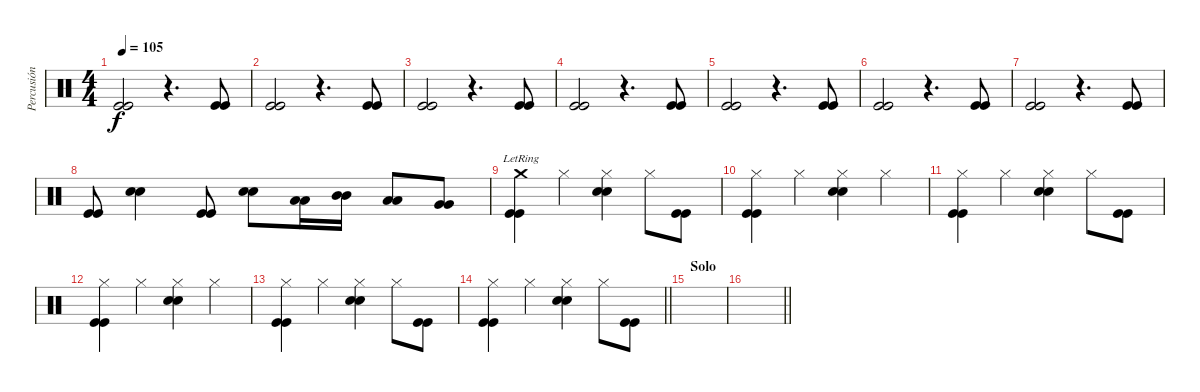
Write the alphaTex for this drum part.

\track ("Percusión" "Percusión") {instrument percussion}
\staff {score}
\articulation defaults
\ts (4 4)
\tempo 105
\clef neutral
\ks c
("Kick (hit)" "Kick (hit)").2{dy f} r.4{d} ("Kick (hit)" "Kick (hit)").8 |
("Kick (hit)" "Kick (hit)").2 r.4{d} ("Kick (hit)" "Kick (hit)").8 |
("Kick (hit)" "Kick (hit)").2 r.4{d} ("Kick (hit)" "Kick (hit)").8 |
("Kick (hit)" "Kick (hit)").2 r.4{d} ("Kick (hit)" "Kick (hit)").8 |
("Kick (hit)" "Kick (hit)").2 r.4{d} ("Kick (hit)" "Kick (hit)").8 |
("Kick (hit)" "Kick (hit)").2 r.4{d} ("Kick (hit)" "Kick (hit)").8 |
("Kick (hit)" "Kick (hit)").2 r.4{d} ("Kick (hit)" "Kick (hit)").8 |
("Kick (hit)" "Kick (hit)").8 ("Electric Snare (hit)" "Electric Snare (hit)").4 ("Kick (hit)" "Kick (hit)").8 ("Electric Snare (hit)" "Electric Snare (hit)").8 ("Low Tom (hit)" "Low Tom (hit)").16 ("Mid Tom (hit)" "Mid Tom (hit)").16 ("Low Tom (hit)" "Low Tom (hit)").8 ("Very Low Tom (hit)" "Very Low Tom (hit)").8 |
("Crash medium (hit)"{lr} "Kick (hit)" "Kick (hit)").4 "Hi-Hat (closed)".4 ("Hi-Hat (closed)" "Electric Snare (hit)" "Electric Snare (hit)").4 "Hi-Hat (closed)".8 ("Kick (hit)" "Kick (hit)").8 |
("Hi-Hat (closed)" "Kick (hit)" "Kick (hit)").4 "Hi-Hat (closed)".4 ("Hi-Hat (closed)" "Electric Snare (hit)" "Electric Snare (hit)").4 "Hi-Hat (closed)".4 |
("Hi-Hat (closed)" "Kick (hit)" "Kick (hit)").4 "Hi-Hat (closed)".4 ("Hi-Hat (closed)" "Electric Snare (hit)" "Electric Snare (hit)").4 "Hi-Hat (closed)".8 ("Kick (hit)" "Kick (hit)").8 |
("Hi-Hat (closed)" "Kick (hit)" "Kick (hit)").4 "Hi-Hat (closed)".4 ("Hi-Hat (closed)" "Electric Snare (hit)" "Electric Snare (hit)").4 "Hi-Hat (closed)".4 |
("Hi-Hat (closed)" "Kick (hit)" "Kick (hit)").4 "Hi-Hat (closed)".4 ("Hi-Hat (closed)" "Electric Snare (hit)" "Electric Snare (hit)").4 "Hi-Hat (closed)".8 ("Kick (hit)" "Kick (hit)").8 |
\barLineRight lightlight
("Hi-Hat (closed)" "Kick (hit)" "Kick (hit)").4 "Hi-Hat (closed)".4 ("Hi-Hat (closed)" "Electric Snare (hit)" "Electric Snare (hit)").4 "Hi-Hat (closed)".8 ("Kick (hit)" "Kick (hit)").8 |
\section ("" "Solo")
|
\barLineRight lightlight
